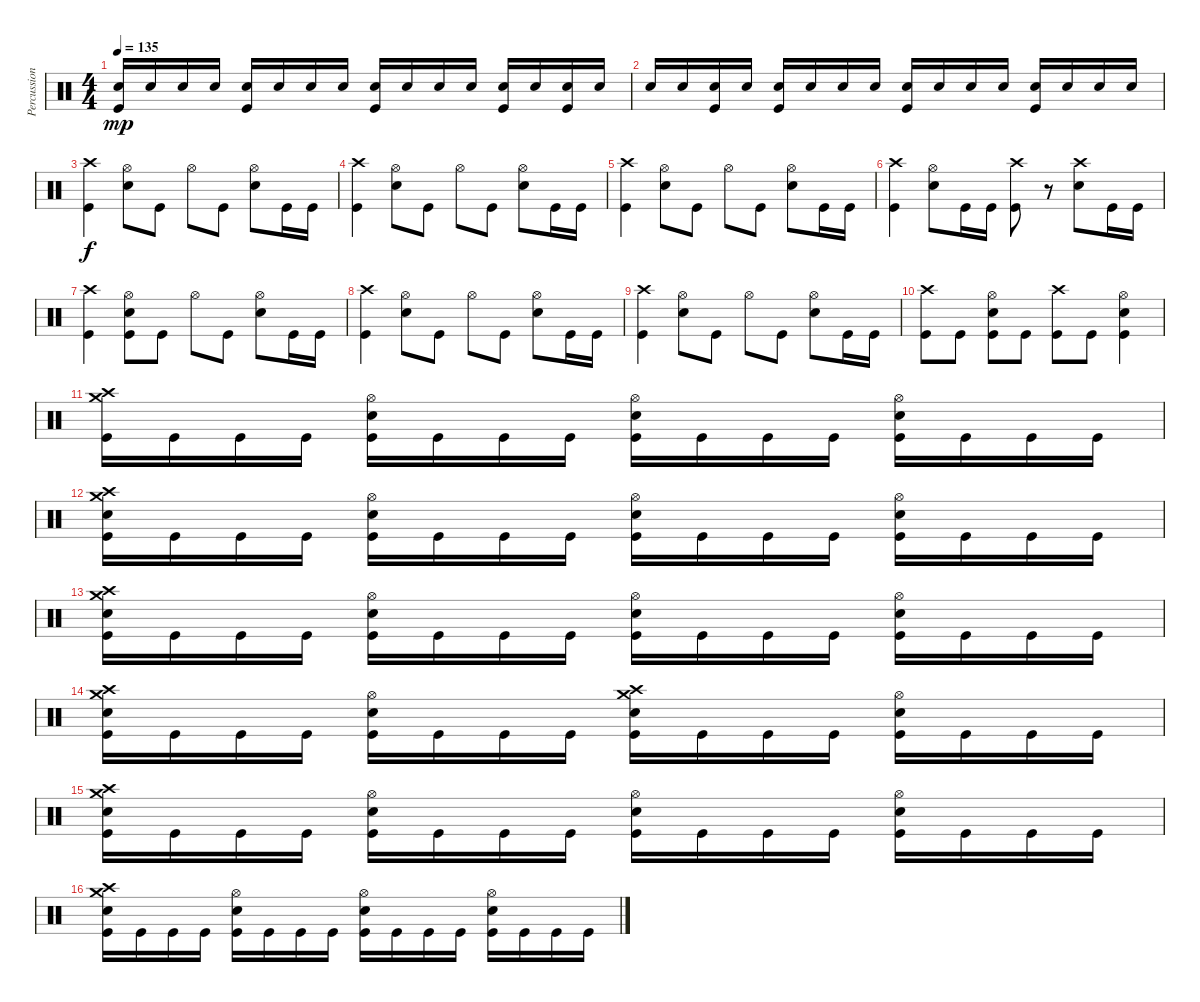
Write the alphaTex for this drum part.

\track ("Percussion" "Percussion") {instrument percussion}
\staff {score}
\articulation defaults
\ts (4 4)
\tempo 135
\clef neutral
\ks c
("Electric Snare (hit)" "Kick (hit)").16{dy mp} "Electric Snare (hit)".16 "Electric Snare (hit)".16 "Electric Snare (hit)".16 ("Electric Snare (hit)" "Kick (hit)").16 "Electric Snare (hit)".16 "Electric Snare (hit)".16 "Electric Snare (hit)".16 ("Electric Snare (hit)" "Kick (hit)").16 "Electric Snare (hit)".16 "Electric Snare (hit)".16 "Electric Snare (hit)".16 ("Electric Snare (hit)" "Kick (hit)").16 "Electric Snare (hit)".16 ("Electric Snare (hit)" "Kick (hit)").16 "Electric Snare (hit)".16 |
"Electric Snare (hit)".16 "Electric Snare (hit)".16 ("Electric Snare (hit)" "Kick (hit)").16 "Electric Snare (hit)".16 ("Electric Snare (hit)" "Kick (hit)").16 "Electric Snare (hit)".16 "Electric Snare (hit)".16 "Electric Snare (hit)".16 ("Electric Snare (hit)" "Kick (hit)").16 "Electric Snare (hit)".16 "Electric Snare (hit)".16 "Electric Snare (hit)".16 ("Electric Snare (hit)" "Kick (hit)").16 "Electric Snare (hit)".16 "Electric Snare (hit)".16 "Electric Snare (hit)".16 |
("Crash high (hit)" "Kick (hit)").4{dy f} ("Hi-Hat (open)" "Electric Snare (hit)").8 "Kick (hit)".8 "Hi-Hat (open)".8 "Kick (hit)".8 ("Hi-Hat (open)" "Electric Snare (hit)").8 "Kick (hit)".16 "Kick (hit)".16 |
("Crash high (hit)" "Kick (hit)").4 ("Hi-Hat (open)" "Electric Snare (hit)").8 "Kick (hit)".8 "Hi-Hat (open)".8 "Kick (hit)".8 ("Hi-Hat (open)" "Electric Snare (hit)").8 "Kick (hit)".16 "Kick (hit)".16 |
("Crash high (hit)" "Kick (hit)").4 ("Hi-Hat (open)" "Electric Snare (hit)").8 "Kick (hit)".8 "Hi-Hat (open)".8 "Kick (hit)".8 ("Hi-Hat (open)" "Electric Snare (hit)").8 "Kick (hit)".16 "Kick (hit)".16 |
("Crash high (hit)" "Kick (hit)").4 ("Hi-Hat (open)" "Electric Snare (hit)").8 "Kick (hit)".16 "Kick (hit)".16 ("Crash high (hit)" "Kick (hit)").8 r.8 ("Crash high (hit)" "Electric Snare (hit)").8 "Kick (hit)".16 "Kick (hit)".16 |
("Crash high (hit)" "Kick (hit)").4 ("Hi-Hat (open)" "Electric Snare (hit)" "Kick (hit)").8 "Kick (hit)".8 "Hi-Hat (open)".8 "Kick (hit)".8 ("Hi-Hat (open)" "Electric Snare (hit)").8 "Kick (hit)".16 "Kick (hit)".16 |
("Crash high (hit)" "Kick (hit)").4 ("Hi-Hat (open)" "Electric Snare (hit)").8 "Kick (hit)".8 "Hi-Hat (open)".8 "Kick (hit)".8 ("Hi-Hat (open)" "Electric Snare (hit)").8 "Kick (hit)".16 "Kick (hit)".16 |
("Crash high (hit)" "Kick (hit)").4 ("Hi-Hat (open)" "Electric Snare (hit)").8 "Kick (hit)".8 "Hi-Hat (open)".8 "Kick (hit)".8 ("Hi-Hat (open)" "Electric Snare (hit)").8 "Kick (hit)".16 "Kick (hit)".16 |
("Crash high (hit)" "Kick (hit)").8 "Kick (hit)".8 ("Hi-Hat (open)" "Electric Snare (hit)" "Kick (hit)").8 "Kick (hit)".8 ("Crash high (hit)" "Kick (hit)").8 "Kick (hit)".8 ("Hi-Hat (open)" "Electric Snare (hit)" "Kick (hit)").4 |
("Crash high (hit)" "Crash medium (hit)" "Kick (hit)").16 "Kick (hit)".16 "Kick (hit)".16 "Kick (hit)".16 ("Hi-Hat (open)" "Electric Snare (hit)" "Kick (hit)").16 "Kick (hit)".16 "Kick (hit)".16 "Kick (hit)".16 ("Hi-Hat (open)" "Electric Snare (hit)" "Kick (hit)").16 "Kick (hit)".16 "Kick (hit)".16 "Kick (hit)".16 ("Hi-Hat (open)" "Electric Snare (hit)" "Kick (hit)").16 "Kick (hit)".16 "Kick (hit)".16 "Kick (hit)".16 |
("Crash high (hit)" "Crash medium (hit)" "Electric Snare (hit)" "Kick (hit)").16 "Kick (hit)".16 "Kick (hit)".16 "Kick (hit)".16 ("Hi-Hat (open)" "Electric Snare (hit)" "Kick (hit)").16 "Kick (hit)".16 "Kick (hit)".16 "Kick (hit)".16 ("Hi-Hat (open)" "Electric Snare (hit)" "Kick (hit)").16 "Kick (hit)".16 "Kick (hit)".16 "Kick (hit)".16 ("Hi-Hat (open)" "Electric Snare (hit)" "Kick (hit)").16 "Kick (hit)".16 "Kick (hit)".16 "Kick (hit)".16 |
("Crash high (hit)" "Crash medium (hit)" "Electric Snare (hit)" "Kick (hit)").16 "Kick (hit)".16 "Kick (hit)".16 "Kick (hit)".16 ("Hi-Hat (open)" "Electric Snare (hit)" "Kick (hit)").16 "Kick (hit)".16 "Kick (hit)".16 "Kick (hit)".16 ("Hi-Hat (open)" "Electric Snare (hit)" "Kick (hit)").16 "Kick (hit)".16 "Kick (hit)".16 "Kick (hit)".16 ("Hi-Hat (open)" "Electric Snare (hit)" "Kick (hit)").16 "Kick (hit)".16 "Kick (hit)".16 "Kick (hit)".16 |
("Crash high (hit)" "Crash medium (hit)" "Electric Snare (hit)" "Kick (hit)").16 "Kick (hit)".16 "Kick (hit)".16 "Kick (hit)".16 ("Hi-Hat (open)" "Electric Snare (hit)" "Kick (hit)").16 "Kick (hit)".16 "Kick (hit)".16 "Kick (hit)".16 ("Crash high (hit)" "Crash medium (hit)" "Electric Snare (hit)" "Kick (hit)").16 "Kick (hit)".16 "Kick (hit)".16 "Kick (hit)".16 ("Hi-Hat (open)" "Electric Snare (hit)" "Kick (hit)").16 "Kick (hit)".16 "Kick (hit)".16 "Kick (hit)".16 |
("Crash high (hit)" "Crash medium (hit)" "Electric Snare (hit)" "Kick (hit)").16 "Kick (hit)".16 "Kick (hit)".16 "Kick (hit)".16 ("Hi-Hat (open)" "Electric Snare (hit)" "Kick (hit)").16 "Kick (hit)".16 "Kick (hit)".16 "Kick (hit)".16 ("Hi-Hat (open)" "Electric Snare (hit)" "Kick (hit)").16 "Kick (hit)".16 "Kick (hit)".16 "Kick (hit)".16 ("Hi-Hat (open)" "Electric Snare (hit)" "Kick (hit)").16 "Kick (hit)".16 "Kick (hit)".16 "Kick (hit)".16 |
("Crash high (hit)" "Crash medium (hit)" "Electric Snare (hit)" "Kick (hit)").16 "Kick (hit)".16 "Kick (hit)".16 "Kick (hit)".16 ("Hi-Hat (open)" "Electric Snare (hit)" "Kick (hit)").16 "Kick (hit)".16 "Kick (hit)".16 "Kick (hit)".16 ("Hi-Hat (open)" "Electric Snare (hit)" "Kick (hit)").16 "Kick (hit)".16 "Kick (hit)".16 "Kick (hit)".16 ("Hi-Hat (open)" "Electric Snare (hit)" "Kick (hit)").16 "Kick (hit)".16 "Kick (hit)".16 "Kick (hit)".16
